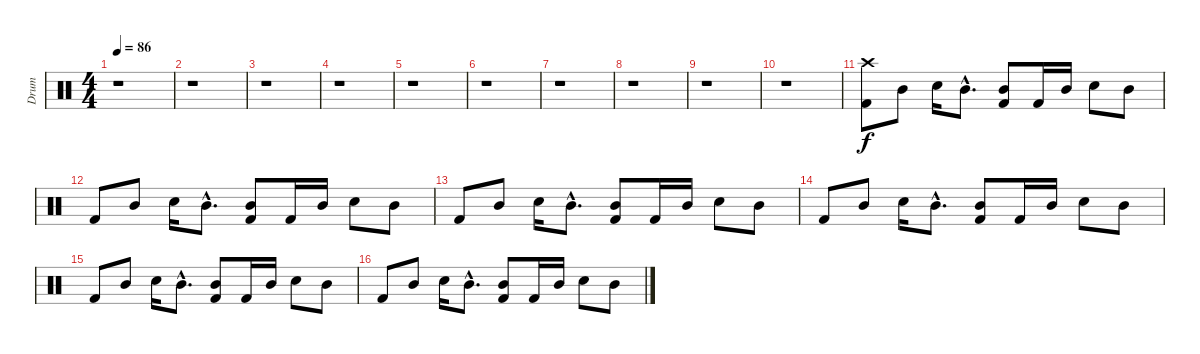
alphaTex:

\track ("Drum" "Drum") {instrument percussion}
\staff {score}
\articulation defaults
\ts (4 4)
\tempo 86
\clef neutral
\ks c
r.1{dy f} |
r.1 |
r.1 |
r.1 |
r.1 |
r.1 |
r.1 |
r.1 |
r.1 |
r.1 |
("Crash high (hit)" "Kick (hit) 2").8 "Mid Tom (hit)".8 "Electric Snare (hit)".16 "Mid Tom (hit)"{hac}.8{d} ("Mid Tom (hit)" "Kick (hit) 2").8 "Kick (hit) 2".16 "Mid Tom (hit)".16 "Electric Snare (hit)".8 "Mid Tom (hit)".8 |
"Kick (hit) 2".8 "Mid Tom (hit)".8 "Electric Snare (hit)".16 "Mid Tom (hit)"{hac}.8{d} ("Mid Tom (hit)" "Kick (hit) 2").8 "Kick (hit) 2".16 "Mid Tom (hit)".16 "Electric Snare (hit)".8 "Mid Tom (hit)".8 |
"Kick (hit) 2".8 "Mid Tom (hit)".8 "Electric Snare (hit)".16 "Mid Tom (hit)"{hac}.8{d} ("Mid Tom (hit)" "Kick (hit) 2").8 "Kick (hit) 2".16 "Mid Tom (hit)".16 "Electric Snare (hit)".8 "Mid Tom (hit)".8 |
"Kick (hit) 2".8 "Mid Tom (hit)".8 "Electric Snare (hit)".16 "Mid Tom (hit)"{hac}.8{d} ("Mid Tom (hit)" "Kick (hit) 2").8 "Kick (hit) 2".16 "Mid Tom (hit)".16 "Electric Snare (hit)".8 "Mid Tom (hit)".8 |
"Kick (hit) 2".8 "Mid Tom (hit)".8 "Electric Snare (hit)".16 "Mid Tom (hit)"{hac}.8{d} ("Mid Tom (hit)" "Kick (hit) 2").8 "Kick (hit) 2".16 "Mid Tom (hit)".16 "Electric Snare (hit)".8 "Mid Tom (hit)".8 |
"Kick (hit) 2".8 "Mid Tom (hit)".8 "Electric Snare (hit)".16 "Mid Tom (hit)"{hac}.8{d} ("Mid Tom (hit)" "Kick (hit) 2").8 "Kick (hit) 2".16 "Mid Tom (hit)".16 "Electric Snare (hit)".8 "Mid Tom (hit)".8
